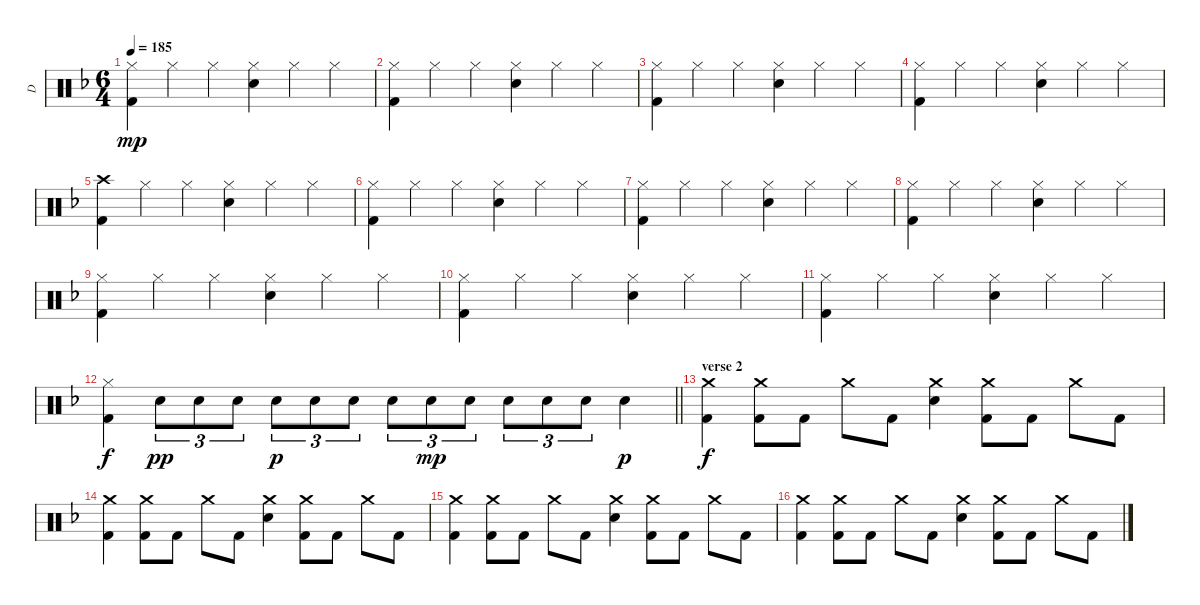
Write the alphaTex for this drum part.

\track ("D" "D") {instrument percussion}
\staff {score}
\articulation defaults
\ts (6 4)
\tempo 185
\clef neutral
\ks dminor
("Hi-Hat (closed)" "Kick (hit) 2").4{dy mp} "Hi-Hat (closed)".4 "Hi-Hat (closed)".4 ("Hi-Hat (closed)" "Snare (hit) 2").4 "Hi-Hat (closed)".4 "Hi-Hat (closed)".4 |
("Hi-Hat (closed)" "Kick (hit) 2").4 "Hi-Hat (closed)".4 "Hi-Hat (closed)".4 ("Hi-Hat (closed)" "Snare (hit) 2").4 "Hi-Hat (closed)".4 "Hi-Hat (closed)".4 |
("Hi-Hat (closed)" "Kick (hit) 2").4 "Hi-Hat (closed)".4 "Hi-Hat (closed)".4 ("Hi-Hat (closed)" "Snare (hit) 2").4 "Hi-Hat (closed)".4 "Hi-Hat (closed)".4 |
("Hi-Hat (closed)" "Kick (hit) 2").4 "Hi-Hat (closed)".4 "Hi-Hat (closed)".4 ("Hi-Hat (closed)" "Snare (hit) 2").4 "Hi-Hat (closed)".4 "Hi-Hat (closed)".4 |
("Crash high (hit)" "Kick (hit) 2").4 "Hi-Hat (closed)".4 "Hi-Hat (closed)".4 ("Hi-Hat (closed)" "Snare (hit) 2").4 "Hi-Hat (closed)".4 "Hi-Hat (closed)".4 |
("Hi-Hat (closed)" "Kick (hit) 2").4 "Hi-Hat (closed)".4 "Hi-Hat (closed)".4 ("Hi-Hat (closed)" "Snare (hit) 2").4 "Hi-Hat (closed)".4 "Hi-Hat (closed)".4 |
("Hi-Hat (closed)" "Kick (hit) 2").4 "Hi-Hat (closed)".4 "Hi-Hat (closed)".4 ("Hi-Hat (closed)" "Snare (hit) 2").4 "Hi-Hat (closed)".4 "Hi-Hat (closed)".4 |
("Hi-Hat (closed)" "Kick (hit) 2").4 "Hi-Hat (closed)".4 "Hi-Hat (closed)".4 ("Hi-Hat (closed)" "Snare (hit) 2").4 "Hi-Hat (closed)".4 "Hi-Hat (closed)".4 |
("Hi-Hat (closed)" "Kick (hit) 2").4 "Hi-Hat (closed)".4 "Hi-Hat (closed)".4 ("Hi-Hat (closed)" "Snare (hit) 2").4 "Hi-Hat (closed)".4 "Hi-Hat (closed)".4 |
("Hi-Hat (closed)" "Kick (hit) 2").4 "Hi-Hat (closed)".4 "Hi-Hat (closed)".4 ("Hi-Hat (closed)" "Snare (hit) 2").4 "Hi-Hat (closed)".4 "Hi-Hat (closed)".4 |
("Hi-Hat (closed)" "Kick (hit) 2").4 "Hi-Hat (closed)".4 "Hi-Hat (closed)".4 ("Hi-Hat (closed)" "Snare (hit) 2").4 "Hi-Hat (closed)".4 "Hi-Hat (closed)".4 |
\barLineRight lightlight
("Hi-Hat (closed)" "Kick (hit) 2").4{dy f} "Snare (hit) 2".8{tu (3 2) dy pp} "Snare (hit) 2".8{tu (3 2)} "Snare (hit) 2".8{tu (3 2)} "Snare (hit) 2".8{tu (3 2) dy p} "Snare (hit) 2".8{tu (3 2)} "Snare (hit) 2".8{tu (3 2)} "Snare (hit) 2".8{tu (3 2)} "Snare (hit) 2".8{tu (3 2) dy mp} "Snare (hit) 2".8{tu (3 2)} "Snare (hit) 2".8{tu (3 2)} "Snare (hit) 2".8{tu (3 2)} "Snare (hit) 2".8{tu (3 2)} "Snare (hit) 2".4{dy p} |
\section ("" "verse 2")
("Crash medium (hit)" "Kick (hit) 2").4{dy f} ("Crash medium (hit)" "Kick (hit) 2").8 "Kick (hit) 2".8 "Crash medium (hit)".8 "Kick (hit) 2".8 ("Crash medium (hit)" "Snare (hit) 2").4 ("Crash medium (hit)" "Kick (hit) 2").8 "Kick (hit) 2".8 "Crash medium (hit)".8 "Kick (hit) 2".8 |
("Crash medium (hit)" "Kick (hit) 2").4 ("Crash medium (hit)" "Kick (hit) 2").8 "Kick (hit) 2".8 "Crash medium (hit)".8 "Kick (hit) 2".8 ("Crash medium (hit)" "Snare (hit) 2").4 ("Crash medium (hit)" "Kick (hit) 2").8 "Kick (hit) 2".8 "Crash medium (hit)".8 "Kick (hit) 2".8 |
("Crash medium (hit)" "Kick (hit) 2").4 ("Crash medium (hit)" "Kick (hit) 2").8 "Kick (hit) 2".8 "Crash medium (hit)".8 "Kick (hit) 2".8 ("Crash medium (hit)" "Snare (hit) 2").4 ("Crash medium (hit)" "Kick (hit) 2").8 "Kick (hit) 2".8 "Crash medium (hit)".8 "Kick (hit) 2".8 |
("Crash medium (hit)" "Kick (hit) 2").4 ("Crash medium (hit)" "Kick (hit) 2").8 "Kick (hit) 2".8 "Crash medium (hit)".8 "Kick (hit) 2".8 ("Crash medium (hit)" "Snare (hit) 2").4 ("Crash medium (hit)" "Kick (hit) 2").8 "Kick (hit) 2".8 "Crash medium (hit)".8 "Kick (hit) 2".8
